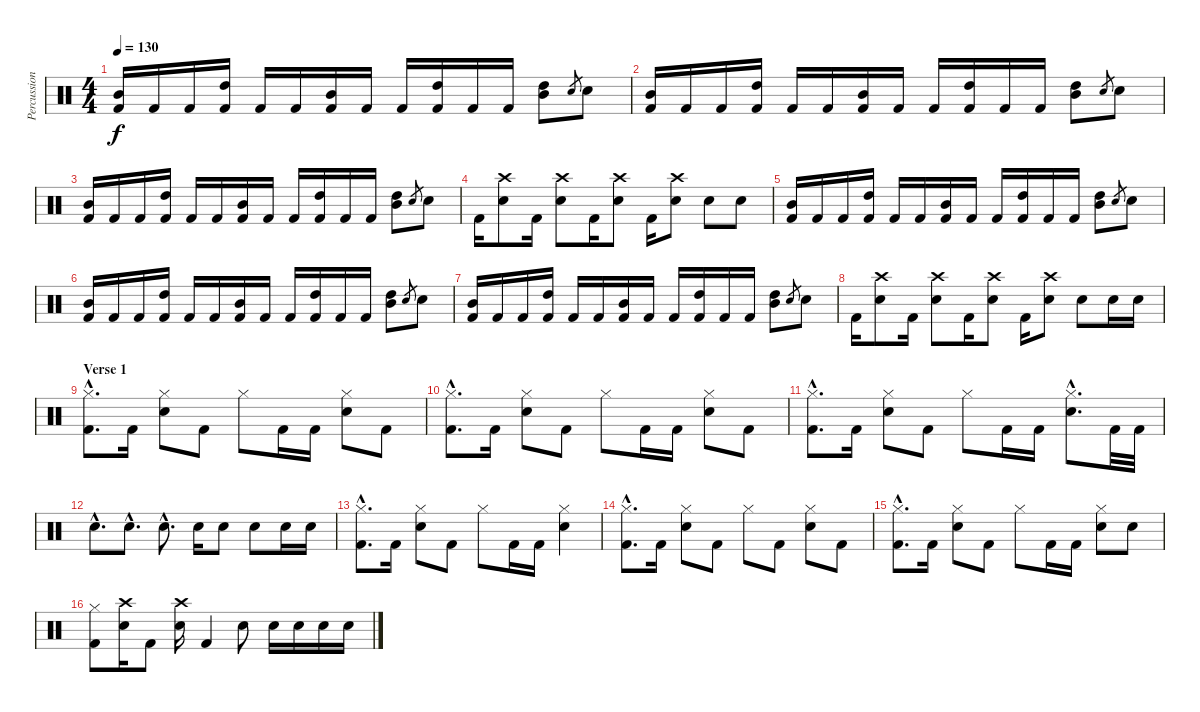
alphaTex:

\track ("Percussions" "Percussion") {instrument percussion}
\staff {score}
\articulation defaults
\ts (4 4)
\tempo 130
\clef neutral
\ks c
("Mid Tom (hit)" "Kick (hit) 2").16{dy f} "Kick (hit) 2".16 "Kick (hit) 2".16 ("High Tom (hit)" "Kick (hit) 2").16 "Kick (hit) 2".16 "Kick (hit) 2".16 ("Mid Tom (hit)" "Kick (hit) 2").16 "Kick (hit) 2".16 "Kick (hit) 2".16 ("High Tom (hit)" "Kick (hit) 2").16 "Kick (hit) 2".16 "Kick (hit) 2".16 ("Mid Tom (hit)" "High Tom (hit)").8 "Electric Snare (hit)".8{gr} "Electric Snare (hit)".8 |
("Mid Tom (hit)" "Kick (hit) 2").16 "Kick (hit) 2".16 "Kick (hit) 2".16 ("High Tom (hit)" "Kick (hit) 2").16 "Kick (hit) 2".16 "Kick (hit) 2".16 ("Mid Tom (hit)" "Kick (hit) 2").16 "Kick (hit) 2".16 "Kick (hit) 2".16 ("High Tom (hit)" "Kick (hit) 2").16 "Kick (hit) 2".16 "Kick (hit) 2".16 ("Mid Tom (hit)" "High Tom (hit)").8 "Electric Snare (hit)".8{gr} "Electric Snare (hit)".8 |
("Mid Tom (hit)" "Kick (hit) 2").16 "Kick (hit) 2".16 "Kick (hit) 2".16 ("High Tom (hit)" "Kick (hit) 2").16 "Kick (hit) 2".16 "Kick (hit) 2".16 ("Mid Tom (hit)" "Kick (hit) 2").16 "Kick (hit) 2".16 "Kick (hit) 2".16 ("High Tom (hit)" "Kick (hit) 2").16 "Kick (hit) 2".16 "Kick (hit) 2".16 ("Mid Tom (hit)" "High Tom (hit)").8 "Electric Snare (hit)".8{gr} "Electric Snare (hit)".8 |
"Kick (hit) 2".16 ("Crash high (hit)" "Electric Snare (hit)").8 "Kick (hit) 2".16 ("Crash high (hit)" "Electric Snare (hit)").8 "Kick (hit) 2".16 ("Crash high (hit)" "Electric Snare (hit)").8 "Kick (hit) 2".16 ("Crash high (hit)" "Electric Snare (hit)").8 "Electric Snare (hit)".8 "Electric Snare (hit)".8 |
("Mid Tom (hit)" "Kick (hit) 2").16 "Kick (hit) 2".16 "Kick (hit) 2".16 ("High Tom (hit)" "Kick (hit) 2").16 "Kick (hit) 2".16 "Kick (hit) 2".16 ("Mid Tom (hit)" "Kick (hit) 2").16 "Kick (hit) 2".16 "Kick (hit) 2".16 ("High Tom (hit)" "Kick (hit) 2").16 "Kick (hit) 2".16 "Kick (hit) 2".16 ("Mid Tom (hit)" "High Tom (hit)").8 "Electric Snare (hit)".8{gr} "Electric Snare (hit)".8 |
("Mid Tom (hit)" "Kick (hit) 2").16 "Kick (hit) 2".16 "Kick (hit) 2".16 ("High Tom (hit)" "Kick (hit) 2").16 "Kick (hit) 2".16 "Kick (hit) 2".16 ("Mid Tom (hit)" "Kick (hit) 2").16 "Kick (hit) 2".16 "Kick (hit) 2".16 ("High Tom (hit)" "Kick (hit) 2").16 "Kick (hit) 2".16 "Kick (hit) 2".16 ("Mid Tom (hit)" "High Tom (hit)").8 "Electric Snare (hit)".8{gr} "Electric Snare (hit)".8 |
("Mid Tom (hit)" "Kick (hit) 2").16 "Kick (hit) 2".16 "Kick (hit) 2".16 ("High Tom (hit)" "Kick (hit) 2").16 "Kick (hit) 2".16 "Kick (hit) 2".16 ("Mid Tom (hit)" "Kick (hit) 2").16 "Kick (hit) 2".16 "Kick (hit) 2".16 ("High Tom (hit)" "Kick (hit) 2").16 "Kick (hit) 2".16 "Kick (hit) 2".16 ("Mid Tom (hit)" "High Tom (hit)").8 "Electric Snare (hit)".8{gr} "Electric Snare (hit)".8 |
"Kick (hit) 2".16 ("Crash high (hit)" "Electric Snare (hit)").8 "Kick (hit) 2".16 ("Crash high (hit)" "Electric Snare (hit)").8 "Kick (hit) 2".16 ("Crash high (hit)" "Electric Snare (hit)").8 "Kick (hit) 2".16 ("Crash high (hit)" "Electric Snare (hit)").8 "Electric Snare (hit)".8 "Electric Snare (hit)".16 "Electric Snare (hit)".16 |
\section ("" "Verse 1")
("Hi-Hat (closed)"{hac} "Kick (hit) 2"{hac}).8{d} "Kick (hit) 2".16 ("Hi-Hat (closed)" "Electric Snare (hit)").8 "Kick (hit) 2".8 "Hi-Hat (closed)".8 "Kick (hit) 2".16 "Kick (hit) 2".16 ("Hi-Hat (closed)" "Electric Snare (hit)").8 "Kick (hit) 2".8 |
("Hi-Hat (closed)"{hac} "Kick (hit) 2"{hac}).8{d} "Kick (hit) 2".16 ("Hi-Hat (closed)" "Electric Snare (hit)").8 "Kick (hit) 2".8 "Hi-Hat (closed)".8 "Kick (hit) 2".16 "Kick (hit) 2".16 ("Hi-Hat (closed)" "Electric Snare (hit)").8 "Kick (hit) 2".8 |
("Hi-Hat (closed)"{hac} "Kick (hit) 2"{hac}).8{d} "Kick (hit) 2".16 ("Hi-Hat (closed)" "Electric Snare (hit)").8 "Kick (hit) 2".8 "Hi-Hat (closed)".8 "Kick (hit) 2".16 "Kick (hit) 2".16 ("Hi-Hat (closed)"{hac} "Electric Snare (hit)"{hac}).8{d} "Kick (hit) 2".32 "Kick (hit) 2".32 |
"Electric Snare (hit)"{hac}.8{d} "Electric Snare (hit)"{hac}.8{d} "Electric Snare (hit)"{hac}.8{d} "Electric Snare (hit)".16 "Electric Snare (hit)".8 "Electric Snare (hit)".8 "Electric Snare (hit)".16 "Electric Snare (hit)".16 |
("Hi-Hat (closed)"{hac} "Kick (hit) 2"{hac}).8{d} "Kick (hit) 2".16 ("Hi-Hat (closed)" "Electric Snare (hit)").8 "Kick (hit) 2".8 "Hi-Hat (closed)".8 "Kick (hit) 2".16 "Kick (hit) 2".16 ("Hi-Hat (closed)" "Electric Snare (hit)").4 |
("Hi-Hat (closed)"{hac} "Kick (hit) 2"{hac}).8{d} "Kick (hit) 2".16 ("Hi-Hat (closed)" "Electric Snare (hit)").8 "Kick (hit) 2".8 "Hi-Hat (closed)".8 "Kick (hit) 2".8 ("Hi-Hat (closed)" "Electric Snare (hit)").8 "Kick (hit) 2".8 |
("Hi-Hat (closed)"{hac} "Kick (hit) 2"{hac}).8{d} "Kick (hit) 2".16 ("Hi-Hat (closed)" "Electric Snare (hit)").8 "Kick (hit) 2".8 "Hi-Hat (closed)".8 "Kick (hit) 2".16 "Kick (hit) 2".16 ("Hi-Hat (closed)" "Electric Snare (hit)").8 "Electric Snare (hit)".8 |
("Hi-Hat (closed)" "Kick (hit) 2").8 ("Crash high (hit)" "Electric Snare (hit)").16 "Kick (hit) 2".8 ("Crash high (hit)" "Electric Snare (hit)").16 "Kick (hit) 2".4 "Electric Snare (hit)".8 "Electric Snare (hit)".16 "Electric Snare (hit)".16 "Electric Snare (hit)".16 "Electric Snare (hit)".16
